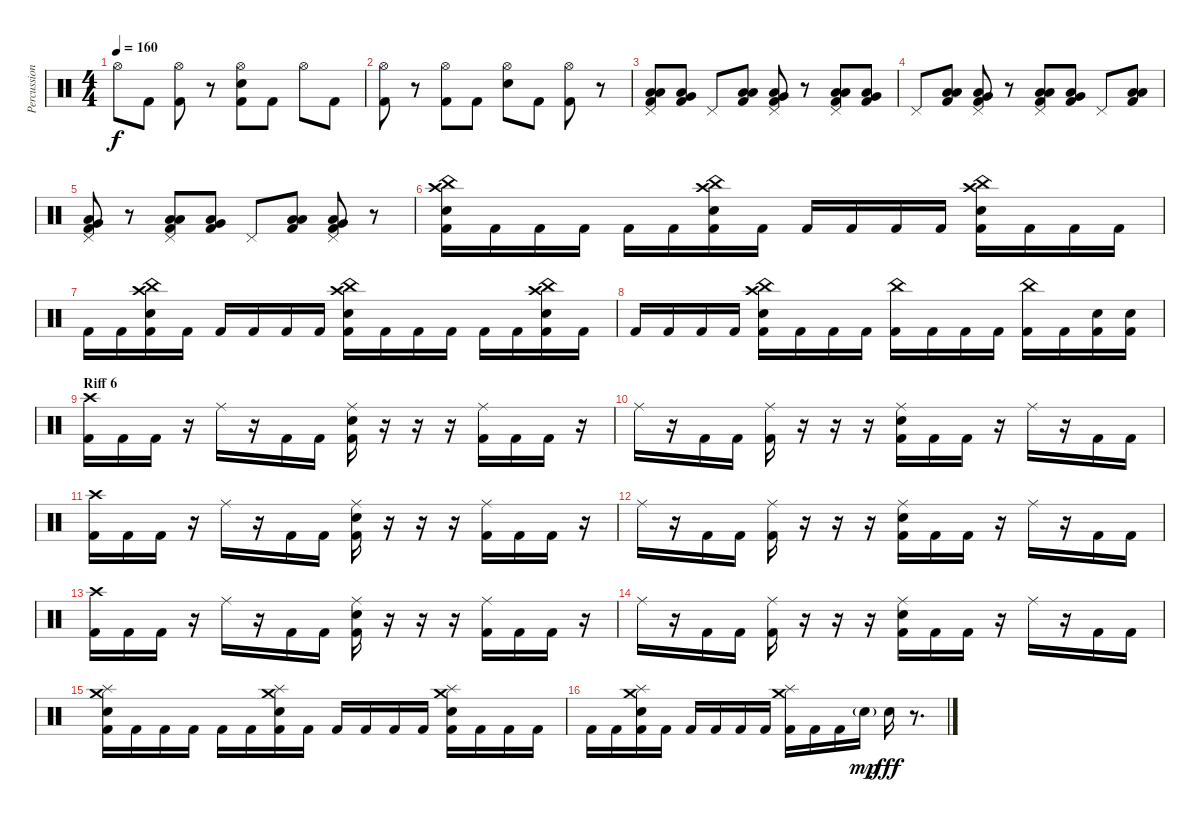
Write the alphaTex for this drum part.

\track ("Percussion" "Percussion") {instrument percussion}
\staff {score}
\articulation defaults
\ts (4 4)
\tempo 160
\clef neutral
\ks c "Hi-Hat (open)".8{dy f} "Kick (hit) 2".8
("Hi-Hat (open)" "Kick (hit) 2").8 r.8 ("Hi-Hat (open)" "Electric Snare (hit)" "Kick (hit) 2").8 "Kick (hit) 2".8 "Hi-Hat (open)".8 "Kick (hit) 2".8 |
("Hi-Hat (open)" "Kick (hit) 2").8 r.8 ("Hi-Hat (open)" "Kick (hit) 2").8 "Kick (hit) 2".8 ("Hi-Hat (open)" "Electric Snare (hit)").8 "Kick (hit) 2".8 ("Hi-Hat (open)" "Kick (hit) 2").8 r.8 |
("Pedal Hi-Hat (hit)" "Low Tom (hit)" "Low Floor Tom (hit)" "Kick (hit) 2").8 ("Very Low Tom (hit)" "Low Floor Tom (hit)" "Kick (hit) 2").8 "Pedal Hi-Hat (hit)".8 ("Low Tom (hit)" "Low Floor Tom (hit)" "Kick (hit) 2").8 ("Pedal Hi-Hat (hit)" "Very Low Tom (hit)" "Low Floor Tom (hit)" "Kick (hit) 2").8 r.8 ("Pedal Hi-Hat (hit)" "Low Tom (hit)" "Low Floor Tom (hit)" "Kick (hit) 2").8 ("Very Low Tom (hit)" "Low Floor Tom (hit)" "Kick (hit) 2").8 |
"Pedal Hi-Hat (hit)".8 ("Low Tom (hit)" "Low Floor Tom (hit)" "Kick (hit) 2").8 ("Pedal Hi-Hat (hit)" "Very Low Tom (hit)" "Low Floor Tom (hit)" "Kick (hit) 2").8 r.8 ("Pedal Hi-Hat (hit)" "Low Tom (hit)" "Low Floor Tom (hit)" "Kick (hit) 2").8 ("Very Low Tom (hit)" "Low Floor Tom (hit)" "Kick (hit) 2").8 "Pedal Hi-Hat (hit)".8 ("Low Tom (hit)" "Low Floor Tom (hit)" "Kick (hit) 2").8 |
("Pedal Hi-Hat (hit)" "Very Low Tom (hit)" "Low Floor Tom (hit)" "Kick (hit) 2").8 r.8 ("Pedal Hi-Hat (hit)" "Low Tom (hit)" "Low Floor Tom (hit)" "Kick (hit) 2").8 ("Very Low Tom (hit)" "Low Floor Tom (hit)" "Kick (hit) 2").8 "Pedal Hi-Hat (hit)".8 ("Low Tom (hit)" "Low Floor Tom (hit)" "Kick (hit) 2").8 ("Pedal Hi-Hat (hit)" "Very Low Tom (hit)" "Low Floor Tom (hit)" "Kick (hit) 2").8 r.8 |
("China (hit)" "Crash high (hit)" "Electric Snare (hit)" "Kick (hit) 2").16 "Kick (hit) 2".16 "Kick (hit) 2".16 "Kick (hit) 2".16 "Kick (hit) 2".16 "Kick (hit) 2".16 ("China (hit)" "Crash high (hit)" "Electric Snare (hit)" "Kick (hit) 2").16 "Kick (hit) 2".16 "Kick (hit) 2".16 "Kick (hit) 2".16 "Kick (hit) 2".16 "Kick (hit) 2".16 ("China (hit)" "Crash high (hit)" "Electric Snare (hit)" "Kick (hit) 2").16 "Kick (hit) 2".16 "Kick (hit) 2".16 "Kick (hit) 2".16 |
"Kick (hit) 2".16 "Kick (hit) 2".16 ("China (hit)" "Crash high (hit)" "Electric Snare (hit)" "Kick (hit) 2").16 "Kick (hit) 2".16 "Kick (hit) 2".16 "Kick (hit) 2".16 "Kick (hit) 2".16 "Kick (hit) 2".16 ("China (hit)" "Crash high (hit)" "Electric Snare (hit)" "Kick (hit) 2").16 "Kick (hit) 2".16 "Kick (hit) 2".16 "Kick (hit) 2".16 "Kick (hit) 2".16 "Kick (hit) 2".16 ("China (hit)" "Crash high (hit)" "Electric Snare (hit)" "Kick (hit) 2").16 "Kick (hit) 2".16 |
"Kick (hit) 2".16 "Kick (hit) 2".16 "Kick (hit) 2".16 "Kick (hit) 2".16 ("China (hit)" "Crash high (hit)" "Electric Snare (hit)" "Kick (hit) 2").16 "Kick (hit) 2".16 "Kick (hit) 2".16 "Kick (hit) 2".16 ("China (hit)" "Kick (hit) 2").16 "Kick (hit) 2".16 "Kick (hit) 2".16 "Kick (hit) 2".16 ("China (hit)" "Kick (hit) 2").16 "Kick (hit) 2".16 ("Electric Snare (hit)" "Kick (hit) 2").16 ("Electric Snare (hit)" "Kick (hit) 2").16 |
\section ("" "Riff 6")
("Crash high (hit)" "Kick (hit) 2").16 "Kick (hit) 2".16 "Kick (hit) 2".16 r.16 "Ride (middle)".16 r.16 "Kick (hit) 2".16 "Kick (hit) 2".16 ("Ride (middle)" "Electric Snare (hit)" "Kick (hit) 2").16 r.16 r.16 r.16 ("Ride (middle)" "Kick (hit) 2").16 "Kick (hit) 2".16 "Kick (hit) 2".16 r.16 |
"Ride (middle)".16 r.16 "Kick (hit) 2".16 "Kick (hit) 2".16 ("Ride (middle)" "Kick (hit) 2").16 r.16 r.16 r.16 ("Ride (middle)" "Electric Snare (hit)" "Kick (hit) 2").16 "Kick (hit) 2".16 "Kick (hit) 2".16 r.16 "Ride (middle)".16 r.16 "Kick (hit) 2".16 "Kick (hit) 2".16 |
("Crash high (hit)" "Kick (hit) 2").16 "Kick (hit) 2".16 "Kick (hit) 2".16 r.16 "Ride (middle)".16 r.16 "Kick (hit) 2".16 "Kick (hit) 2".16 ("Ride (middle)" "Electric Snare (hit)" "Kick (hit) 2").16 r.16 r.16 r.16 ("Ride (middle)" "Kick (hit) 2").16 "Kick (hit) 2".16 "Kick (hit) 2".16 r.16 |
"Ride (middle)".16 r.16 "Kick (hit) 2".16 "Kick (hit) 2".16 ("Ride (middle)" "Kick (hit) 2").16 r.16 r.16 r.16 ("Ride (middle)" "Electric Snare (hit)" "Kick (hit) 2").16 "Kick (hit) 2".16 "Kick (hit) 2".16 r.16 "Ride (middle)".16 r.16 "Kick (hit) 2".16 "Kick (hit) 2".16 |
("Crash high (hit)" "Kick (hit) 2").16 "Kick (hit) 2".16 "Kick (hit) 2".16 r.16 "Ride (middle)".16 r.16 "Kick (hit) 2".16 "Kick (hit) 2".16 ("Ride (middle)" "Electric Snare (hit)" "Kick (hit) 2").16 r.16 r.16 r.16 ("Ride (middle)" "Kick (hit) 2").16 "Kick (hit) 2".16 "Kick (hit) 2".16 r.16 |
"Ride (middle)".16 r.16 "Kick (hit) 2".16 "Kick (hit) 2".16 ("Ride (middle)" "Kick (hit) 2").16 r.16 r.16 r.16 ("Ride (middle)" "Electric Snare (hit)" "Kick (hit) 2").16 "Kick (hit) 2".16 "Kick (hit) 2".16 r.16 "Ride (middle)".16 r.16 "Kick (hit) 2".16 "Kick (hit) 2".16 |
("Crash medium (hit)" "Splash (hit)" "Electric Snare (hit)" "Kick (hit) 2").16 "Kick (hit) 2".16 "Kick (hit) 2".16 "Kick (hit) 2".16 "Kick (hit) 2".16 "Kick (hit) 2".16 ("Crash medium (hit)" "Splash (hit)" "Electric Snare (hit)" "Kick (hit) 2").16 "Kick (hit) 2".16 "Kick (hit) 2".16 "Kick (hit) 2".16 "Kick (hit) 2".16 "Kick (hit) 2".16 ("Crash medium (hit)" "Splash (hit)" "Electric Snare (hit)" "Kick (hit) 2").16 "Kick (hit) 2".16 "Kick (hit) 2".16 "Kick (hit) 2".16 |
"Kick (hit) 2".16 "Kick (hit) 2".16 ("Crash medium (hit)" "Splash (hit)" "Electric Snare (hit)" "Kick (hit) 2").16 "Kick (hit) 2".16 "Kick (hit) 2".16 "Kick (hit) 2".16 "Kick (hit) 2".16 "Kick (hit) 2".16 ("Crash medium (hit)" "Splash (hit)" "Kick (hit) 2").16 "Kick (hit) 2".16 "Kick (hit) 2".16 "Electric Snare (hit)"{g}.16{dy mp} "Electric Snare (hit)".16{dy fff} r.8{d}
